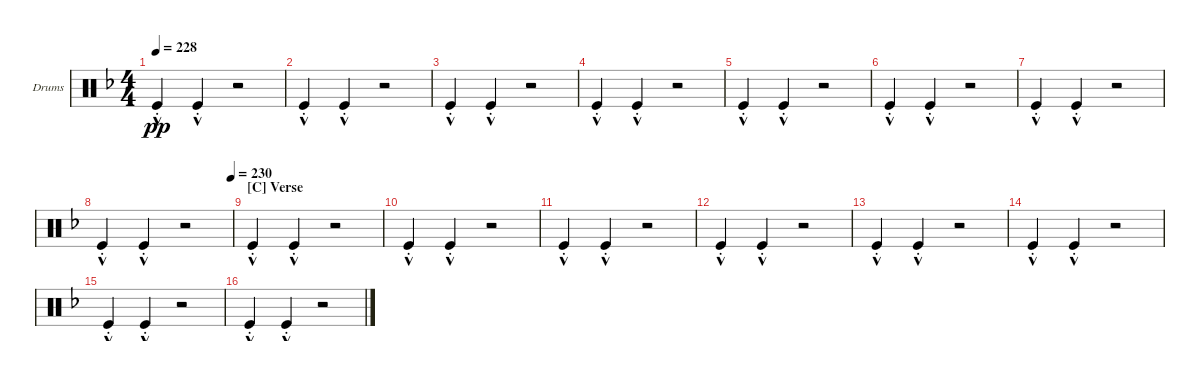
\defaultSystemsLayout 4
\bracketExtendMode groupsimilarinstruments
\firstSystemTrackNameOrientation horizontal
\otherSystemsTrackNameOrientation horizontal
\track ("Drumkit" "Drums") {instrument percussion}
\staff {score}
\articulation defaults
\ts (4 4)
\tempo 228
\clef neutral
\ks dminor "Kick (hit)"{hac st}.4{dy pp} "Kick (hit)"{hac st}.4
r.2 |
"Kick (hit)"{hac st}.4 "Kick (hit)"{hac st}.4 r.2 |
"Kick (hit)"{hac st}.4 "Kick (hit)"{hac st}.4 r.2 |
"Kick (hit)"{hac st}.4 "Kick (hit)"{hac st}.4 r.2 |
"Kick (hit)"{hac st}.4 "Kick (hit)"{hac st}.4 r.2 |
"Kick (hit)"{hac st}.4 "Kick (hit)"{hac st}.4 r.2 |
"Kick (hit)"{hac st}.4 "Kick (hit)"{hac st}.4 r.2 |
\tempo (230 0.99375)
"Kick (hit)"{hac st}.4 "Kick (hit)"{hac st}.4 r.2 |
\section ("C" "Verse")
"Kick (hit)"{hac st}.4 "Kick (hit)"{hac st}.4 r.2 |
"Kick (hit)"{hac st}.4 "Kick (hit)"{hac st}.4 r.2 |
"Kick (hit)"{hac st}.4 "Kick (hit)"{hac st}.4 r.2 |
"Kick (hit)"{hac st}.4 "Kick (hit)"{hac st}.4 r.2 |
"Kick (hit)"{hac st}.4 "Kick (hit)"{hac st}.4 r.2 |
"Kick (hit)"{hac st}.4 "Kick (hit)"{hac st}.4 r.2 |
"Kick (hit)"{hac st}.4 "Kick (hit)"{hac st}.4 r.2 |
"Kick (hit)"{hac st}.4 "Kick (hit)"{hac st}.4 r.2
